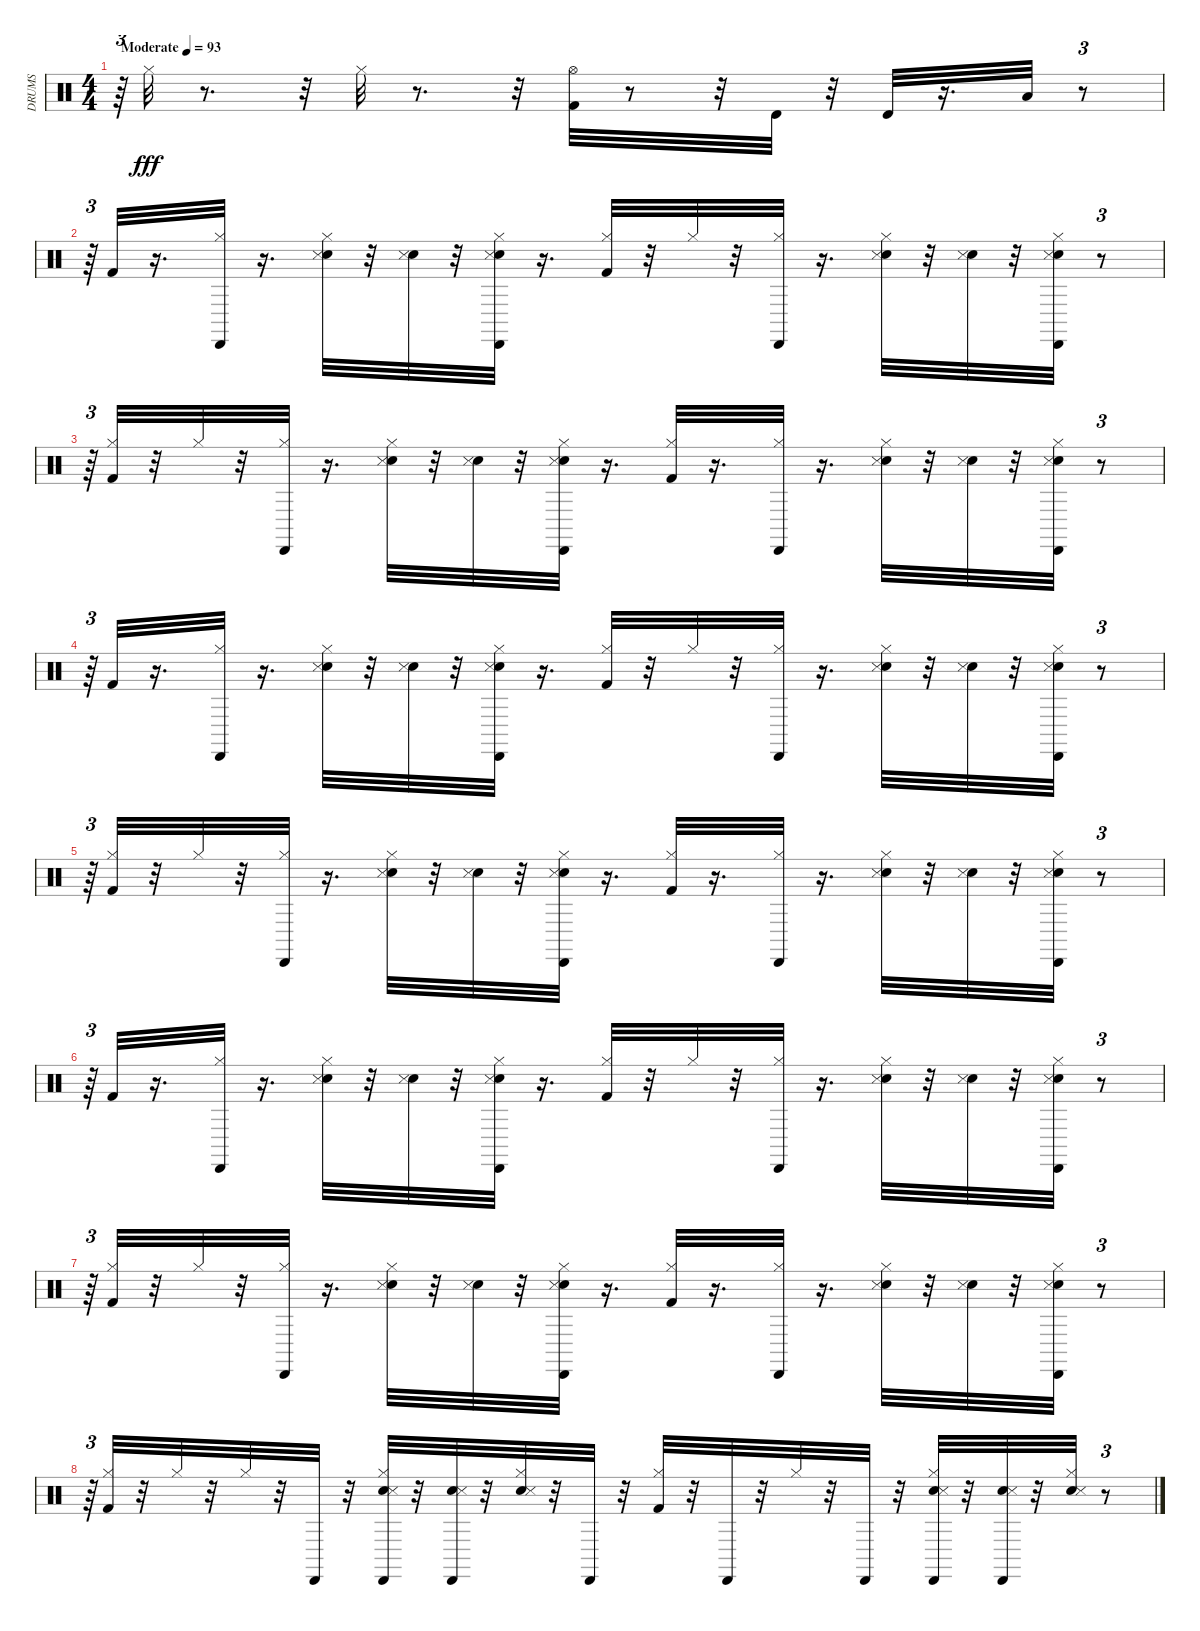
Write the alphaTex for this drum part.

\track ("DRUMS   " "DRUMS   ") {instrument percussion}
\staff {score}
\articulation defaults
\ts (4 4)
\tempo (93 "Moderate")
\clef neutral
\ks c
r.64{tu (3 2) dy fff} "Hi-Hat (closed)".32 r.8{d} r.32 "Hi-Hat (closed)".32 r.8{d} r.32 ("Kick (hit) 2" "Hi-Hat (open)").32 r.8 r.32 "Timbale high (hit)".32 r.32 "Timbale high (hit)".32 r.16{d} "Low Floor Tom (hit)".32 r.8{tu (3 2)} |
r.64{tu (3 2)} "Kick (hit) 2".32 r.16{d} ("Hi-Hat (closed)" "Cabasa (hit)").32 r.16{d} ("Snare (hit) 2" "Hi-Hat (closed)" "Snare (side stick) 3").32 r.32 ("Snare (hit) 2" "Snare (side stick) 3").32 r.32 ("Snare (hit) 2" "Hi-Hat (closed)" "Snare (side stick) 3" "Cabasa (hit)").32 r.16{d} ("Kick (hit) 2" "Hi-Hat (closed)").32 r.32 "Hi-Hat (closed)".32 r.32 ("Hi-Hat (closed)" "Cabasa (hit)").32 r.16{d} ("Snare (hit) 2" "Hi-Hat (closed)" "Snare (side stick) 3").32 r.32 ("Snare (hit) 2" "Snare (side stick) 3").32 r.32 ("Snare (hit) 2" "Hi-Hat (closed)" "Snare (side stick) 3" "Cabasa (hit)").32 r.8{tu (3 2)} |
r.64{tu (3 2)} ("Kick (hit) 2" "Hi-Hat (closed)").32 r.32 "Hi-Hat (closed)".32 r.32 ("Hi-Hat (closed)" "Cabasa (hit)").32 r.16{d} ("Snare (hit) 2" "Hi-Hat (closed)" "Snare (side stick) 3").32 r.32 ("Snare (hit) 2" "Snare (side stick) 3").32 r.32 ("Snare (hit) 2" "Hi-Hat (closed)" "Snare (side stick) 3" "Cabasa (hit)").32 r.16{d} ("Kick (hit) 2" "Hi-Hat (closed)").32 r.16{d} ("Hi-Hat (closed)" "Cabasa (hit)").32 r.16{d} ("Snare (hit) 2" "Hi-Hat (closed)" "Snare (side stick) 3").32 r.32 ("Snare (hit) 2" "Snare (side stick) 3").32 r.32 ("Snare (hit) 2" "Hi-Hat (closed)" "Snare (side stick) 3" "Cabasa (hit)").32 r.8{tu (3 2)} |
r.64{tu (3 2)} "Kick (hit) 2".32 r.16{d} ("Hi-Hat (closed)" "Cabasa (hit)").32 r.16{d} ("Snare (hit) 2" "Hi-Hat (closed)" "Snare (side stick) 3").32 r.32 ("Snare (hit) 2" "Snare (side stick) 3").32 r.32 ("Snare (hit) 2" "Hi-Hat (closed)" "Snare (side stick) 3" "Cabasa (hit)").32 r.16{d} ("Kick (hit) 2" "Hi-Hat (closed)").32 r.32 "Hi-Hat (closed)".32 r.32 ("Hi-Hat (closed)" "Cabasa (hit)").32 r.16{d} ("Snare (hit) 2" "Hi-Hat (closed)" "Snare (side stick) 3").32 r.32 ("Snare (hit) 2" "Snare (side stick) 3").32 r.32 ("Snare (hit) 2" "Hi-Hat (closed)" "Snare (side stick) 3" "Cabasa (hit)").32 r.8{tu (3 2)} |
r.64{tu (3 2)} ("Kick (hit) 2" "Hi-Hat (closed)").32 r.32 "Hi-Hat (closed)".32 r.32 ("Hi-Hat (closed)" "Cabasa (hit)").32 r.16{d} ("Snare (hit) 2" "Hi-Hat (closed)" "Snare (side stick) 3").32 r.32 ("Snare (hit) 2" "Snare (side stick) 3").32 r.32 ("Snare (hit) 2" "Hi-Hat (closed)" "Snare (side stick) 3" "Cabasa (hit)").32 r.16{d} ("Kick (hit) 2" "Hi-Hat (closed)").32 r.16{d} ("Hi-Hat (closed)" "Cabasa (hit)").32 r.16{d} ("Snare (hit) 2" "Hi-Hat (closed)" "Snare (side stick) 3").32 r.32 ("Snare (hit) 2" "Snare (side stick) 3").32 r.32 ("Snare (hit) 2" "Hi-Hat (closed)" "Snare (side stick) 3" "Cabasa (hit)").32 r.8{tu (3 2)} |
r.64{tu (3 2)} "Kick (hit) 2".32 r.16{d} ("Hi-Hat (closed)" "Cabasa (hit)").32 r.16{d} ("Snare (hit) 2" "Hi-Hat (closed)" "Snare (side stick) 3").32 r.32 ("Snare (hit) 2" "Snare (side stick) 3").32 r.32 ("Snare (hit) 2" "Hi-Hat (closed)" "Snare (side stick) 3" "Cabasa (hit)").32 r.16{d} ("Kick (hit) 2" "Hi-Hat (closed)").32 r.32 "Hi-Hat (closed)".32 r.32 ("Hi-Hat (closed)" "Cabasa (hit)").32 r.16{d} ("Snare (hit) 2" "Hi-Hat (closed)" "Snare (side stick) 3").32 r.32 ("Snare (hit) 2" "Snare (side stick) 3").32 r.32 ("Snare (hit) 2" "Hi-Hat (closed)" "Snare (side stick) 3" "Cabasa (hit)").32 r.8{tu (3 2)} |
r.64{tu (3 2)} ("Kick (hit) 2" "Hi-Hat (closed)").32 r.32 "Hi-Hat (closed)".32 r.32 ("Hi-Hat (closed)" "Cabasa (hit)").32 r.16{d} ("Snare (hit) 2" "Hi-Hat (closed)" "Snare (side stick) 3").32 r.32 ("Snare (hit) 2" "Snare (side stick) 3").32 r.32 ("Snare (hit) 2" "Hi-Hat (closed)" "Snare (side stick) 3" "Cabasa (hit)").32 r.16{d} ("Kick (hit) 2" "Hi-Hat (closed)").32 r.16{d} ("Hi-Hat (closed)" "Cabasa (hit)").32 r.16{d} ("Snare (hit) 2" "Hi-Hat (closed)" "Snare (side stick) 3").32 r.32 ("Snare (hit) 2" "Snare (side stick) 3").32 r.32 ("Snare (hit) 2" "Hi-Hat (closed)" "Snare (side stick) 3" "Cabasa (hit)").32 r.8{tu (3 2)} |
r.64{tu (3 2)} ("Kick (hit) 2" "Hi-Hat (closed)").32 r.32 "Hi-Hat (closed)".32 r.32 "Hi-Hat (closed)".32 r.32 "Cabasa (hit)".32 r.32 ("Snare (hit) 2" "Hi-Hat (closed)" "Snare (side stick) 3" "Cabasa (hit)").32 r.32 ("Snare (hit) 2" "Snare (side stick) 3" "Cabasa (hit)").32 r.32 ("Snare (hit) 2" "Hi-Hat (closed)" "Snare (side stick) 3").32 r.32 "Cabasa (hit)".32 r.32 ("Kick (hit) 2" "Hi-Hat (closed)").32 r.32 "Cabasa (hit)".32 r.32 "Hi-Hat (closed)".32 r.32 "Cabasa (hit)".32 r.32 ("Snare (hit) 2" "Hi-Hat (closed)" "Snare (side stick) 3" "Cabasa (hit)").32 r.32 ("Snare (hit) 2" "Snare (side stick) 3" "Cabasa (hit)").32 r.32 ("Snare (hit) 2" "Hi-Hat (closed)" "Snare (side stick) 3").32 r.8{tu (3 2)}
